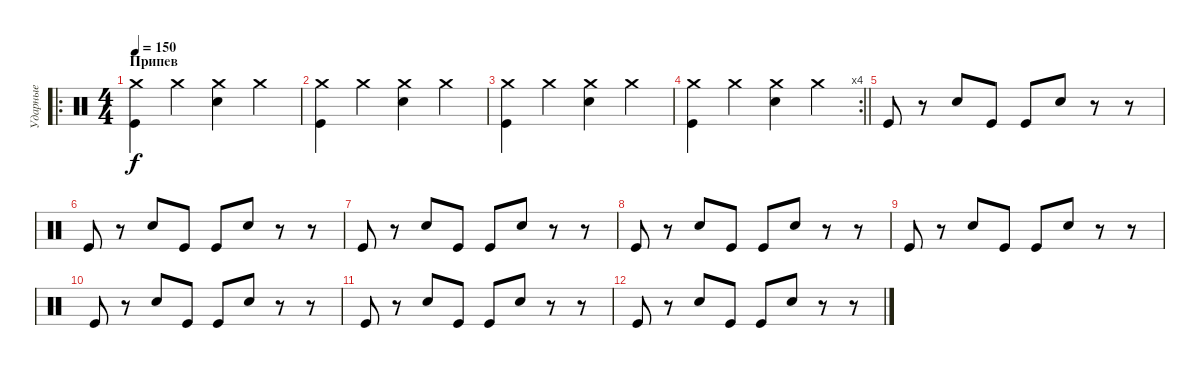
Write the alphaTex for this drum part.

\track ("Ударные" "Ударные") {instrument percussion}
\staff {score}
\articulation defaults
\ro
\ts (4 4)
\section ("" "Припев")
\tempo 150
\clef neutral
\ks c
("Crash medium (hit)" "Kick (hit)").4{dy f} "Crash medium (hit)".4 ("Crash medium (hit)" "Snare (hit) 2").4 "Crash medium (hit)".4 |
("Crash medium (hit)" "Kick (hit)").4 "Crash medium (hit)".4 ("Crash medium (hit)" "Snare (hit) 2").4 "Crash medium (hit)".4 |
("Crash medium (hit)" "Kick (hit)").4 "Crash medium (hit)".4 ("Crash medium (hit)" "Snare (hit) 2").4 "Crash medium (hit)".4 |
\rc 4
\barLineRight lightlight
("Crash medium (hit)" "Kick (hit)").4 "Crash medium (hit)".4 ("Crash medium (hit)" "Snare (hit) 2").4 "Crash medium (hit)".4 |
"Kick (hit)".8 r.8 "Snare (hit) 2".8 "Kick (hit)".8 "Kick (hit)".8 "Snare (hit) 2".8 r.8 r.8 |
"Kick (hit)".8 r.8 "Snare (hit) 2".8 "Kick (hit)".8 "Kick (hit)".8 "Snare (hit) 2".8 r.8 r.8 |
"Kick (hit)".8 r.8 "Snare (hit) 2".8 "Kick (hit)".8 "Kick (hit)".8 "Snare (hit) 2".8 r.8 r.8 |
"Kick (hit)".8 r.8 "Snare (hit) 2".8 "Kick (hit)".8 "Kick (hit)".8 "Snare (hit) 2".8 r.8 r.8 |
"Kick (hit)".8 r.8 "Snare (hit) 2".8 "Kick (hit)".8 "Kick (hit)".8 "Snare (hit) 2".8 r.8 r.8 |
"Kick (hit)".8 r.8 "Snare (hit) 2".8 "Kick (hit)".8 "Kick (hit)".8 "Snare (hit) 2".8 r.8 r.8 |
"Kick (hit)".8 r.8 "Snare (hit) 2".8 "Kick (hit)".8 "Kick (hit)".8 "Snare (hit) 2".8 r.8 r.8 |
"Kick (hit)".8 r.8 "Snare (hit) 2".8 "Kick (hit)".8 "Kick (hit)".8 "Snare (hit) 2".8 r.8 r.8
